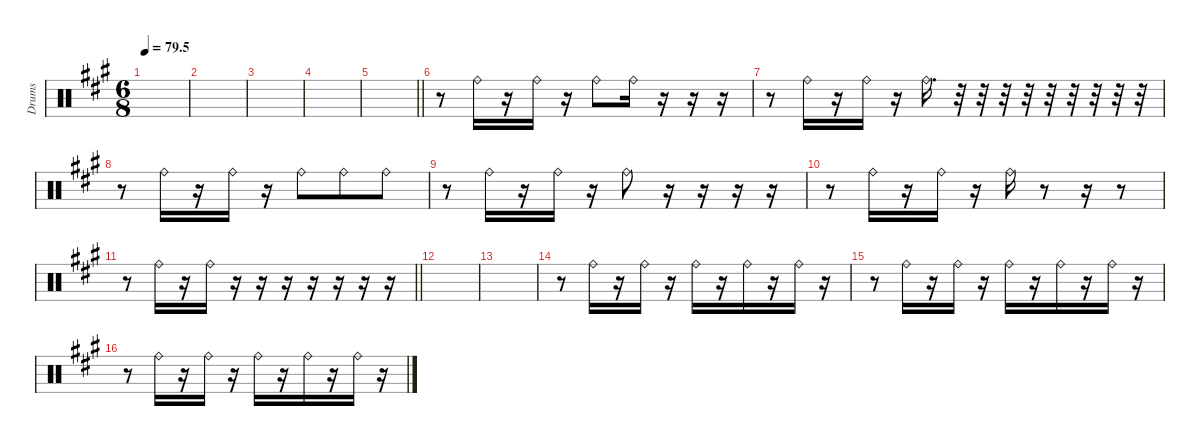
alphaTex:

\defaultSystemsLayout 4
\hideDynamics
\bracketExtendMode nobrackets
\otherSystemsTrackNameOrientation horizontal
\track ("Raid" "Drums") {instrument percussion}
\staff {score}
\articulation defaults
\ts (6 8)
\tempo
79.5
\accidentals auto
\clef neutral
\ottava regular
\simile none
\scale
0.333333
\ks a
|
\scale
0.333333 |
\scale
0.333333 |
\scale
0.333333 |
\scale
0.333333
\barLineRight lightlight
|
\scale
0.333333 r.8 "Ride (bell)"{acc forcenatural}.16 r.16 "Ride (bell)"{acc forcenatural}.16 r.16 "Ride (bell)"{acc forcenatural}.8 "Ride (bell)"{acc forcenatural}.16 r.16 r.16 r.16 |
\scale
0.333333 r.8 "Ride (bell)"{acc forcenatural}.16 r.16 "Ride (bell)"{acc forcenatural}.16 r.16 "Ride (bell)"{acc forcenatural}.16{d} r.32 r.32 r.32 r.32 r.32 r.32 r.32 r.32 r.32 |
\scale
0.333333 r.8 "Ride (bell)"{acc forcenatural}.16 r.16 "Ride (bell)"{acc forcenatural}.16 r.16 "Ride (bell)"{acc forcenatural}.8 "Ride (bell)"{acc forcenatural}.8 "Ride (bell)"{acc forcenatural}.8 |
\scale
0.333333 r.8 "Ride (bell)"{acc forcenatural}.16 r.16 "Ride (bell)"{acc forcenatural}.16 r.16 "Ride (bell)"{acc forcenatural}.8 r.16 r.16 r.16 r.16 |
\scale
0.333333 r.8 "Ride (bell)"{acc forcenatural}.16 r.16 "Ride (bell)"{acc forcenatural}.16 r.16 "Ride (bell)"{acc forcenatural}.16 r.8 r.16 r.8 |
\scale
0.333333
\barLineRight lightlight
r.8 "Ride (bell)"{acc forcenatural}.16 r.16 "Ride (bell)"{acc forcenatural}.16 r.16 r.16 r.16 r.16 r.16 r.16 r.16 |
\scale
0.333333 |
\scale
0.333333 |
\scale
0.333333 r.8 "Ride (bell)"{acc forcenatural}.16 r.16 "Ride (bell)"{acc forcenatural}.16 r.16 "Ride (bell)"{acc forcenatural}.16 r.16 "Ride (bell)"{acc forcenatural}.16 r.16 "Ride (bell)"{acc forcenatural}.16 r.16 |
\scale
0.333333 r.8 "Ride (bell)"{acc forcenatural}.16 r.16 "Ride (bell)"{acc forcenatural}.16 r.16 "Ride (bell)"{acc forcenatural}.16 r.16 "Ride (bell)"{acc forcenatural}.16 r.16 "Ride (bell)"{acc forcenatural}.16 r.16 |
\scale
0.333333 r.8 "Ride (bell)"{acc forcenatural}.16 r.16 "Ride (bell)"{acc forcenatural}.16 r.16 "Ride (bell)"{acc forcenatural}.16 r.16 "Ride (bell)"{acc forcenatural}.16 r.16 "Ride (bell)"{acc forcenatural}.16 r.16
